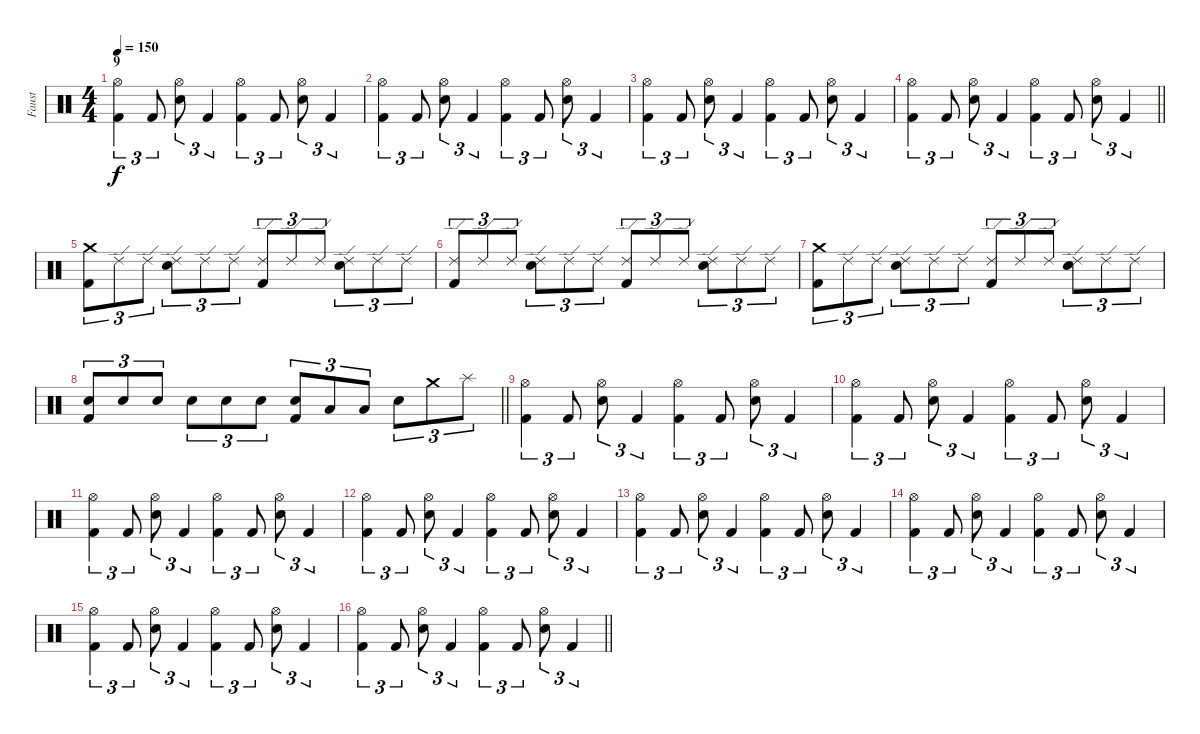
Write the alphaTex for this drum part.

\track ("Faust" "Faust") {instrument percussion}
\staff {score}
\articulation defaults
\ts (4 4)
\section ("" "9")
\tempo 150
\clef neutral
\ks c
("Hi-Hat (open)" "Kick (hit) 2").4{tu (3 2) dy f} "Kick (hit) 2".8{tu (3 2)} ("Hi-Hat (open)" "Electric Snare (hit)").8{tu (3 2)} "Kick (hit) 2".4{tu (3 2)} ("Hi-Hat (open)" "Kick (hit) 2").4{tu (3 2)} "Kick (hit) 2".8{tu (3 2)} ("Hi-Hat (open)" "Electric Snare (hit)").8{tu (3 2)} "Kick (hit) 2".4{tu (3 2)} |
("Hi-Hat (open)" "Kick (hit) 2").4{tu (3 2)} "Kick (hit) 2".8{tu (3 2)} ("Hi-Hat (open)" "Electric Snare (hit)").8{tu (3 2)} "Kick (hit) 2".4{tu (3 2)} ("Hi-Hat (open)" "Kick (hit) 2").4{tu (3 2)} "Kick (hit) 2".8{tu (3 2)} ("Hi-Hat (open)" "Electric Snare (hit)").8{tu (3 2)} "Kick (hit) 2".4{tu (3 2)} |
("Hi-Hat (open)" "Kick (hit) 2").4{tu (3 2)} "Kick (hit) 2".8{tu (3 2)} ("Hi-Hat (open)" "Electric Snare (hit)").8{tu (3 2)} "Kick (hit) 2".4{tu (3 2)} ("Hi-Hat (open)" "Kick (hit) 2").4{tu (3 2)} "Kick (hit) 2".8{tu (3 2)} ("Hi-Hat (open)" "Electric Snare (hit)").8{tu (3 2)} "Kick (hit) 2".4{tu (3 2)} |
\barLineRight lightlight
("Hi-Hat (open)" "Kick (hit) 2").4{tu (3 2)} "Kick (hit) 2".8{tu (3 2)} ("Hi-Hat (open)" "Electric Snare (hit)").8{tu (3 2)} "Kick (hit) 2".4{tu (3 2)} ("Hi-Hat (open)" "Kick (hit) 2").4{tu (3 2)} "Kick (hit) 2".8{tu (3 2)} ("Hi-Hat (open)" "Electric Snare (hit)").8{tu (3 2)} "Kick (hit) 2".4{tu (3 2)} |
\section ("" "")
("Crash medium (hit)" "Kick (hit) 2").8{tu (3 2)} "Ride (edge) 2".8{tu (3 2)} "Ride (edge) 2".8{tu (3 2)} ("Ride (edge) 2" "Electric Snare (hit)").8{tu (3 2)} "Ride (edge) 2".8{tu (3 2)} "Ride (edge) 2".8{tu (3 2)} ("Ride (edge) 2" "Kick (hit) 2").8{tu (3 2)} "Ride (edge) 2".8{tu (3 2)} "Ride (edge) 2".8{tu (3 2)} ("Ride (edge) 2" "Electric Snare (hit)").8{tu (3 2)} "Ride (edge) 2".8{tu (3 2)} "Ride (edge) 2".8{tu (3 2)} |
("Ride (edge) 2" "Kick (hit) 2").8{tu (3 2)} "Ride (edge) 2".8{tu (3 2)} "Ride (edge) 2".8{tu (3 2)} ("Ride (edge) 2" "Electric Snare (hit)").8{tu (3 2)} "Ride (edge) 2".8{tu (3 2)} "Ride (edge) 2".8{tu (3 2)} ("Ride (edge) 2" "Kick (hit) 2").8{tu (3 2)} "Ride (edge) 2".8{tu (3 2)} "Ride (edge) 2".8{tu (3 2)} ("Ride (edge) 2" "Electric Snare (hit)").8{tu (3 2)} "Ride (edge) 2".8{tu (3 2)} "Ride (edge) 2".8{tu (3 2)} |
("Crash medium (hit)" "Kick (hit) 2").8{tu (3 2)} "Ride (edge) 2".8{tu (3 2)} "Ride (edge) 2".8{tu (3 2)} ("Ride (edge) 2" "Electric Snare (hit)").8{tu (3 2)} "Ride (edge) 2".8{tu (3 2)} "Ride (edge) 2".8{tu (3 2)} ("Ride (edge) 2" "Kick (hit) 2").8{tu (3 2)} "Ride (edge) 2".8{tu (3 2)} "Ride (edge) 2".8{tu (3 2)} ("Ride (edge) 2" "Electric Snare (hit)").8{tu (3 2)} "Ride (edge) 2".8{tu (3 2)} "Ride (edge) 2".8{tu (3 2)} |
\barLineRight lightlight
("Electric Snare (hit)" "Kick (hit) 2").8{tu (3 2)} "Electric Snare (hit)".8{tu (3 2)} "Electric Snare (hit)".8{tu (3 2)} "Electric Snare (hit)".8{tu (3 2)} "Electric Snare (hit)".8{tu (3 2)} "Electric Snare (hit)".8{tu (3 2)} ("Electric Snare (hit)" "Kick (hit) 2").8{tu (3 2)} "Low Floor Tom (hit)".8{tu (3 2)} "Low Floor Tom (hit)".8{tu (3 2)} "Electric Snare (hit)".8{tu (3 2)} "Crash medium (hit)".8{tu (3 2)} "Splash (hit)".8{tu (3 2)} |
\section ("" "")
("Hi-Hat (open)" "Kick (hit) 2").4{tu (3 2)} "Kick (hit) 2".8{tu (3 2)} ("Hi-Hat (open)" "Electric Snare (hit)").8{tu (3 2)} "Kick (hit) 2".4{tu (3 2)} ("Hi-Hat (open)" "Kick (hit) 2").4{tu (3 2)} "Kick (hit) 2".8{tu (3 2)} ("Hi-Hat (open)" "Electric Snare (hit)").8{tu (3 2)} "Kick (hit) 2".4{tu (3 2)} |
("Hi-Hat (open)" "Kick (hit) 2").4{tu (3 2)} "Kick (hit) 2".8{tu (3 2)} ("Hi-Hat (open)" "Electric Snare (hit)").8{tu (3 2)} "Kick (hit) 2".4{tu (3 2)} ("Hi-Hat (open)" "Kick (hit) 2").4{tu (3 2)} "Kick (hit) 2".8{tu (3 2)} ("Hi-Hat (open)" "Electric Snare (hit)").8{tu (3 2)} "Kick (hit) 2".4{tu (3 2)} |
("Hi-Hat (open)" "Kick (hit) 2").4{tu (3 2)} "Kick (hit) 2".8{tu (3 2)} ("Hi-Hat (open)" "Electric Snare (hit)").8{tu (3 2)} "Kick (hit) 2".4{tu (3 2)} ("Hi-Hat (open)" "Kick (hit) 2").4{tu (3 2)} "Kick (hit) 2".8{tu (3 2)} ("Hi-Hat (open)" "Electric Snare (hit)").8{tu (3 2)} "Kick (hit) 2".4{tu (3 2)} |
("Hi-Hat (open)" "Kick (hit) 2").4{tu (3 2)} "Kick (hit) 2".8{tu (3 2)} ("Hi-Hat (open)" "Electric Snare (hit)").8{tu (3 2)} "Kick (hit) 2".4{tu (3 2)} ("Hi-Hat (open)" "Kick (hit) 2").4{tu (3 2)} "Kick (hit) 2".8{tu (3 2)} ("Hi-Hat (open)" "Electric Snare (hit)").8{tu (3 2)} "Kick (hit) 2".4{tu (3 2)} |
("Hi-Hat (open)" "Kick (hit) 2").4{tu (3 2)} "Kick (hit) 2".8{tu (3 2)} ("Hi-Hat (open)" "Electric Snare (hit)").8{tu (3 2)} "Kick (hit) 2".4{tu (3 2)} ("Hi-Hat (open)" "Kick (hit) 2").4{tu (3 2)} "Kick (hit) 2".8{tu (3 2)} ("Hi-Hat (open)" "Electric Snare (hit)").8{tu (3 2)} "Kick (hit) 2".4{tu (3 2)} |
("Hi-Hat (open)" "Kick (hit) 2").4{tu (3 2)} "Kick (hit) 2".8{tu (3 2)} ("Hi-Hat (open)" "Electric Snare (hit)").8{tu (3 2)} "Kick (hit) 2".4{tu (3 2)} ("Hi-Hat (open)" "Kick (hit) 2").4{tu (3 2)} "Kick (hit) 2".8{tu (3 2)} ("Hi-Hat (open)" "Electric Snare (hit)").8{tu (3 2)} "Kick (hit) 2".4{tu (3 2)} |
("Hi-Hat (open)" "Kick (hit) 2").4{tu (3 2)} "Kick (hit) 2".8{tu (3 2)} ("Hi-Hat (open)" "Electric Snare (hit)").8{tu (3 2)} "Kick (hit) 2".4{tu (3 2)} ("Hi-Hat (open)" "Kick (hit) 2").4{tu (3 2)} "Kick (hit) 2".8{tu (3 2)} ("Hi-Hat (open)" "Electric Snare (hit)").8{tu (3 2)} "Kick (hit) 2".4{tu (3 2)} |
\barLineRight lightlight
("Hi-Hat (open)" "Kick (hit) 2").4{tu (3 2)} "Kick (hit) 2".8{tu (3 2)} ("Hi-Hat (open)" "Electric Snare (hit)").8{tu (3 2)} "Kick (hit) 2".4{tu (3 2)} ("Hi-Hat (open)" "Kick (hit) 2").4{tu (3 2)} "Kick (hit) 2".8{tu (3 2)} ("Hi-Hat (open)" "Electric Snare (hit)").8{tu (3 2)} "Kick (hit) 2".4{tu (3 2)}
